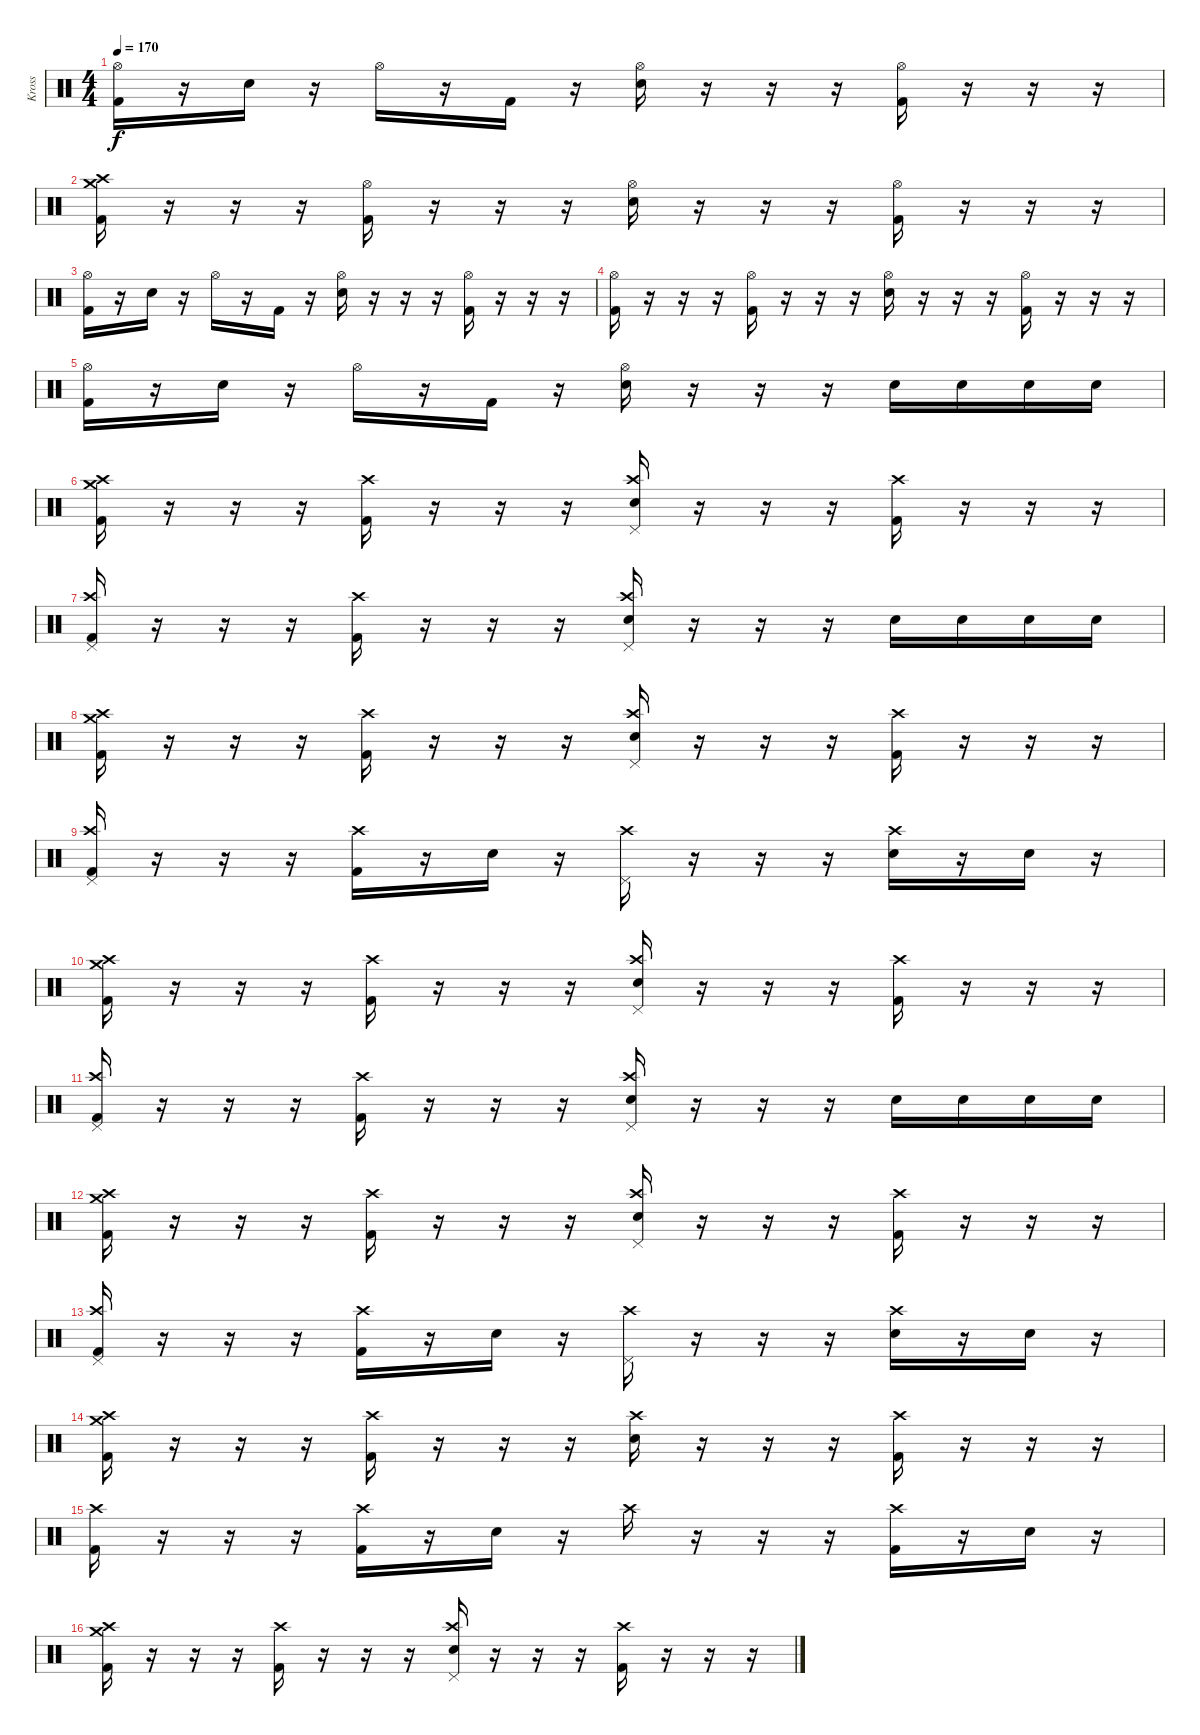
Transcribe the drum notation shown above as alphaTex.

\track ("Kross" "Kross") {instrument percussion}
\staff {score}
\articulation defaults
\ts (4 4)
\tempo 170
\clef neutral
\ks c
("Hi-Hat (open)" "Kick (hit) 2").16{dy f} r.16 "Electric Snare (hit)".16 r.16 "Hi-Hat (open)".16 r.16 "Kick (hit) 2".16 r.16 ("Hi-Hat (open)" "Electric Snare (hit)").16 r.16 r.16 r.16 ("Hi-Hat (open)" "Kick (hit) 2").16 r.16 r.16 r.16 |
("Crash high (hit)" "Crash medium (hit)" "Kick (hit) 2").16 r.16 r.16 r.16 ("Hi-Hat (open)" "Kick (hit) 2").16 r.16 r.16 r.16 ("Hi-Hat (open)" "Electric Snare (hit)").16 r.16 r.16 r.16 ("Hi-Hat (open)" "Kick (hit) 2").16 r.16 r.16 r.16 |
("Hi-Hat (open)" "Kick (hit) 2").16 r.16 "Electric Snare (hit)".16 r.16 "Hi-Hat (open)".16 r.16 "Kick (hit) 2".16 r.16 ("Hi-Hat (open)" "Electric Snare (hit)").16 r.16 r.16 r.16 ("Hi-Hat (open)" "Kick (hit) 2").16 r.16 r.16 r.16 |
("Hi-Hat (open)" "Kick (hit) 2").16 r.16 r.16 r.16 ("Hi-Hat (open)" "Kick (hit) 2").16 r.16 r.16 r.16 ("Hi-Hat (open)" "Electric Snare (hit)").16 r.16 r.16 r.16 ("Hi-Hat (open)" "Kick (hit) 2").16 r.16 r.16 r.16 |
("Hi-Hat (open)" "Kick (hit) 2").16 r.16 "Electric Snare (hit)".16 r.16 "Hi-Hat (open)".16 r.16 "Kick (hit) 2".16 r.16 ("Hi-Hat (open)" "Electric Snare (hit)").16 r.16 r.16 r.16 "Electric Snare (hit)".16 "Electric Snare (hit)".16 "Electric Snare (hit)".16 "Electric Snare (hit)".16 |
("Crash medium (hit)" "Crash high (hit)" "Kick (hit) 2").16 r.16 r.16 r.16 ("Crash high (hit)" "Kick (hit) 2").16 r.16 r.16 r.16 ("Pedal Hi-Hat (hit)" "Crash high (hit)" "Electric Snare (hit)").16 r.16 r.16 r.16 ("Crash high (hit)" "Kick (hit) 2").16 r.16 r.16 r.16 |
("Pedal Hi-Hat (hit)" "Crash high (hit)" "Kick (hit) 2").16 r.16 r.16 r.16 ("Crash high (hit)" "Kick (hit) 2").16 r.16 r.16 r.16 ("Pedal Hi-Hat (hit)" "Crash high (hit)" "Electric Snare (hit)").16 r.16 r.16 r.16 "Electric Snare (hit)".16 "Electric Snare (hit)".16 "Electric Snare (hit)".16 "Electric Snare (hit)".16 |
("Crash medium (hit)" "Crash high (hit)" "Kick (hit) 2").16 r.16 r.16 r.16 ("Crash high (hit)" "Kick (hit) 2").16 r.16 r.16 r.16 ("Pedal Hi-Hat (hit)" "Crash high (hit)" "Electric Snare (hit)").16 r.16 r.16 r.16 ("Crash high (hit)" "Kick (hit) 2").16 r.16 r.16 r.16 |
("Pedal Hi-Hat (hit)" "Crash high (hit)" "Kick (hit) 2").16 r.16 r.16 r.16 ("Crash high (hit)" "Kick (hit) 2").16 r.16 "Electric Snare (hit)".16 r.16 ("Pedal Hi-Hat (hit)" "Crash high (hit)").16 r.16 r.16 r.16 ("Crash high (hit)" "Electric Snare (hit)").16 r.16 "Electric Snare (hit)".16 r.16 |
("Crash medium (hit)" "Crash high (hit)" "Kick (hit) 2").16 r.16 r.16 r.16 ("Crash high (hit)" "Kick (hit) 2").16 r.16 r.16 r.16 ("Pedal Hi-Hat (hit)" "Crash high (hit)" "Electric Snare (hit)").16 r.16 r.16 r.16 ("Crash high (hit)" "Kick (hit) 2").16 r.16 r.16 r.16 |
("Pedal Hi-Hat (hit)" "Crash high (hit)" "Kick (hit) 2").16 r.16 r.16 r.16 ("Crash high (hit)" "Kick (hit) 2").16 r.16 r.16 r.16 ("Pedal Hi-Hat (hit)" "Crash high (hit)" "Electric Snare (hit)").16 r.16 r.16 r.16 "Electric Snare (hit)".16 "Electric Snare (hit)".16 "Electric Snare (hit)".16 "Electric Snare (hit)".16 |
("Crash medium (hit)" "Crash high (hit)" "Kick (hit) 2").16 r.16 r.16 r.16 ("Crash high (hit)" "Kick (hit) 2").16 r.16 r.16 r.16 ("Pedal Hi-Hat (hit)" "Crash high (hit)" "Electric Snare (hit)").16 r.16 r.16 r.16 ("Crash high (hit)" "Kick (hit) 2").16 r.16 r.16 r.16 |
("Pedal Hi-Hat (hit)" "Crash high (hit)" "Kick (hit) 2").16 r.16 r.16 r.16 ("Crash high (hit)" "Kick (hit) 2").16 r.16 "Electric Snare (hit)".16 r.16 ("Pedal Hi-Hat (hit)" "Crash high (hit)").16 r.16 r.16 r.16 ("Crash high (hit)" "Electric Snare (hit)").16 r.16 "Electric Snare (hit)".16 r.16 |
("Crash medium (hit)" "Crash high (hit)" "Kick (hit) 2").16 r.16 r.16 r.16 ("Crash high (hit)" "Kick (hit) 2").16 r.16 r.16 r.16 ("Crash high (hit)" "Electric Snare (hit)").16 r.16 r.16 r.16 ("Crash high (hit)" "Kick (hit) 2").16 r.16 r.16 r.16 |
("Crash high (hit)" "Kick (hit) 2").16 r.16 r.16 r.16 ("Crash high (hit)" "Kick (hit) 2").16 r.16 "Electric Snare (hit)".16 r.16 "Crash high (hit)".16 r.16 r.16 r.16 ("Crash high (hit)" "Kick (hit) 2").16 r.16 "Electric Snare (hit)".16 r.16 |
("Crash medium (hit)" "Crash high (hit)" "Kick (hit) 2").16 r.16 r.16 r.16 ("Crash high (hit)" "Kick (hit) 2").16 r.16 r.16 r.16 ("Pedal Hi-Hat (hit)" "Crash high (hit)" "Electric Snare (hit)").16 r.16 r.16 r.16 ("Crash high (hit)" "Kick (hit) 2").16 r.16 r.16 r.16
